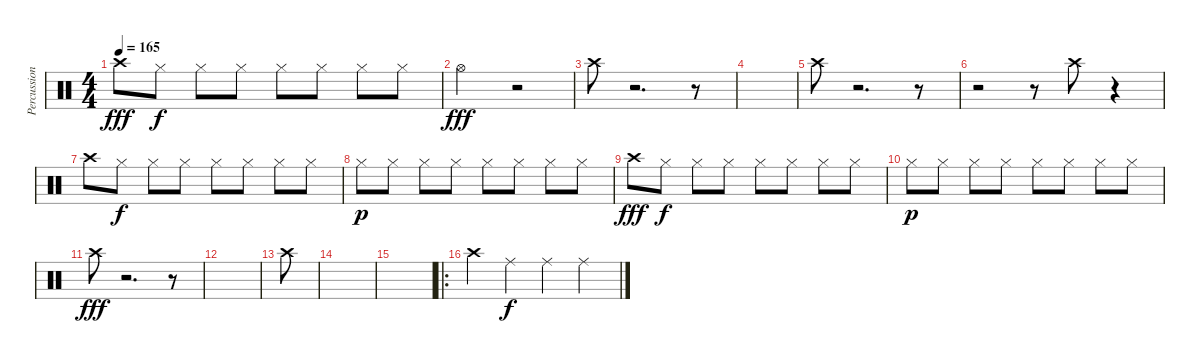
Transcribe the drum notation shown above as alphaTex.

\track ("Percussion" "Percussion") {instrument percussion}
\staff {score}
\articulation defaults
\ts (4 4)
\tempo 165
\clef neutral
\ks c "Crash high (hit)".8{dy fff} "Hi-Hat (closed)".8{dy f} "Hi-Hat (closed)".8 "Hi-Hat (closed)".8 "Hi-Hat (closed)".8 "Hi-Hat (closed)".8 "Hi-Hat (closed)".8 "Hi-Hat (closed)".8
|
"Hi-Hat (open)".2{dy fff} r.2 |
"Crash high (hit)".8 r.2{d} r.8 |
|
"Crash high (hit)".8 r.2{d} r.8 |
r.2 r.8 "Crash high (hit)".8 r.4 |
"Crash high (hit)".8 "Hi-Hat (closed)".8{dy f} "Hi-Hat (closed)".8 "Hi-Hat (closed)".8 "Hi-Hat (closed)".8 "Hi-Hat (closed)".8 "Hi-Hat (closed)".8 "Hi-Hat (closed)".8 |
"Hi-Hat (closed)".8{dy p} "Hi-Hat (closed)".8 "Hi-Hat (closed)".8 "Hi-Hat (closed)".8 "Hi-Hat (closed)".8 "Hi-Hat (closed)".8 "Hi-Hat (closed)".8 "Hi-Hat (closed)".8 |
"Crash high (hit)".8{dy fff} "Hi-Hat (closed)".8{dy f} "Hi-Hat (closed)".8 "Hi-Hat (closed)".8 "Hi-Hat (closed)".8 "Hi-Hat (closed)".8 "Hi-Hat (closed)".8 "Hi-Hat (closed)".8 |
"Hi-Hat (closed)".8{dy p} "Hi-Hat (closed)".8 "Hi-Hat (closed)".8 "Hi-Hat (closed)".8 "Hi-Hat (closed)".8 "Hi-Hat (closed)".8 "Hi-Hat (closed)".8 "Hi-Hat (closed)".8 |
"Crash high (hit)".8{dy fff} r.2{d} r.8 |
|
"Crash high (hit)".8 |
|
|
\ro "Crash high (hit)".4 "Ride (middle)".4{dy f} "Ride (middle)".4 "Ride (middle)".4
